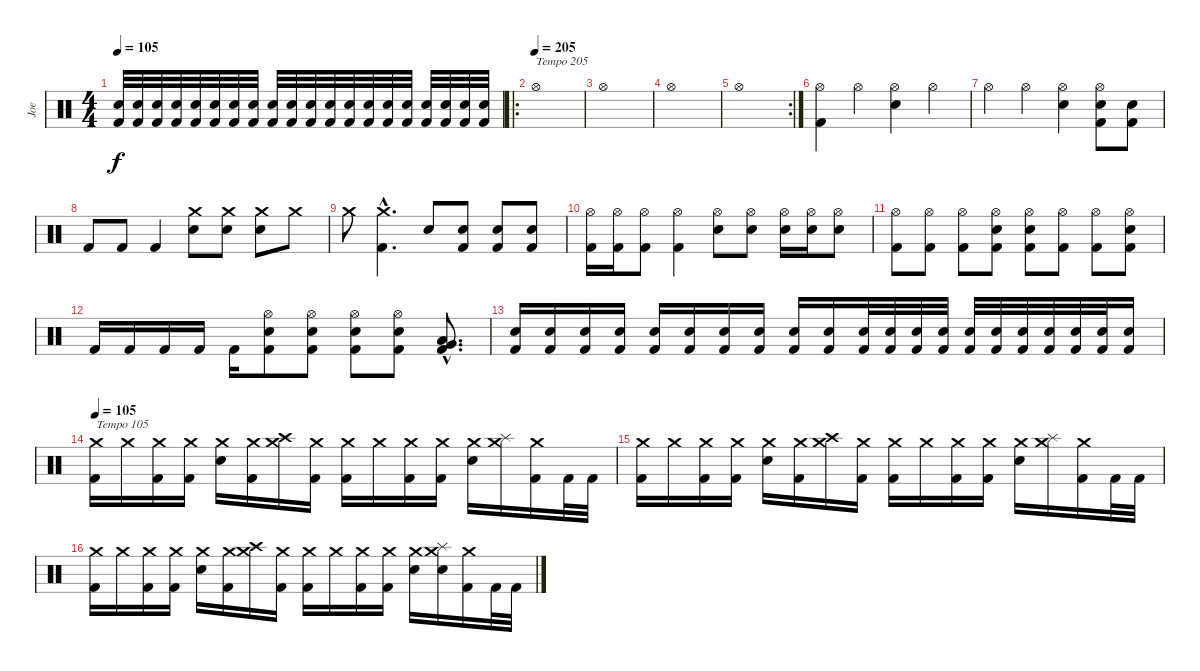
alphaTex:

\track ("Joe" "Joe") {instrument percussion}
\staff {score}
\articulation defaults
\ts (4 4)
\tempo 105
\clef neutral
\ks c
("Kick (hit) 2" "Electric Snare (hit)").32{dy f} ("Kick (hit) 2" "Electric Snare (hit)").32 ("Kick (hit) 2" "Electric Snare (hit)").32 ("Kick (hit) 2" "Electric Snare (hit)").32 ("Kick (hit) 2" "Electric Snare (hit)").32 ("Kick (hit) 2" "Electric Snare (hit)").32 ("Kick (hit) 2" "Electric Snare (hit)").32 ("Kick (hit) 2" "Electric Snare (hit)").32 ("Kick (hit) 2" "Electric Snare (hit)").32 ("Kick (hit) 2" "Electric Snare (hit)").32 ("Kick (hit) 2" "Electric Snare (hit)").32 ("Kick (hit) 2" "Electric Snare (hit)").32 ("Kick (hit) 2" "Electric Snare (hit)").32 ("Kick (hit) 2" "Electric Snare (hit)").32 ("Kick (hit) 2" "Electric Snare (hit)").32 ("Kick (hit) 2" "Electric Snare (hit)").32 ("Kick (hit) 2" "Electric Snare (hit)").32 ("Kick (hit) 2" "Electric Snare (hit)").32 ("Kick (hit) 2" "Electric Snare (hit)").32 ("Kick (hit) 2" "Electric Snare (hit)").32 |
\ro
\tempo (205)
"Hi-Hat (open)".1{txt "Tempo 205"} |
"Hi-Hat (open)".1 |
"Hi-Hat (open)".1 |
\rc 2 "Hi-Hat (open)".1
|
("Kick (hit) 2" "Hi-Hat (open)").4 "Hi-Hat (open)".4 ("Electric Snare (hit)" "Hi-Hat (open)").4 "Hi-Hat (open)".4 |
"Hi-Hat (open)".4 "Hi-Hat (open)".4 ("Electric Snare (hit)" "Hi-Hat (open)").4 ("Kick (hit) 2" "Electric Snare (hit)" "Hi-Hat (open)").8 ("Kick (hit) 2" "Electric Snare (hit)").8 |
"Kick (hit) 2".8 "Kick (hit) 2".8 "Kick (hit) 2".4 ("Electric Snare (hit)" "Crash medium (hit)").8 ("Electric Snare (hit)" "Crash medium (hit)").8 ("Electric Snare (hit)" "Crash medium (hit)").8 "Crash medium (hit)".8 |
"Crash medium (hit)".8 ("Kick (hit) 2"{hac} "Crash medium (hit)"{hac}).4{d} "Electric Snare (hit)".8 ("Kick (hit) 2" "Electric Snare (hit)").8 ("Kick (hit) 2" "Electric Snare (hit)").8 ("Kick (hit) 2" "Electric Snare (hit)").8 |
("Kick (hit) 2" "Hi-Hat (open)").16 ("Kick (hit) 2" "Hi-Hat (open)").16 ("Kick (hit) 2" "Hi-Hat (open)").8 ("Kick (hit) 2" "Hi-Hat (open)").4 ("Electric Snare (hit)" "Hi-Hat (open)").8 ("Electric Snare (hit)" "Hi-Hat (open)").8 ("Electric Snare (hit)" "Hi-Hat (open)").16 ("Electric Snare (hit)" "Hi-Hat (open)").16 ("Electric Snare (hit)" "Hi-Hat (open)").8 |
("Kick (hit) 2" "Hi-Hat (open)").8 ("Kick (hit) 2" "Hi-Hat (open)").8 ("Kick (hit) 2" "Hi-Hat (open)").8 ("Kick (hit) 2" "Electric Snare (hit)" "Hi-Hat (open)").8 ("Kick (hit) 2" "Electric Snare (hit)" "Hi-Hat (open)").8 ("Kick (hit) 2" "Hi-Hat (open)").8 ("Kick (hit) 2" "Hi-Hat (open)").8 ("Kick (hit) 2" "Electric Snare (hit)" "Hi-Hat (open)").8 |
"Kick (hit) 2".16 "Kick (hit) 2".16 "Kick (hit) 2".16 "Kick (hit) 2".16 "Kick (hit) 2".16 ("Kick (hit) 2" "Electric Snare (hit)" "Hi-Hat (open)").8 ("Kick (hit) 2" "Electric Snare (hit)" "Hi-Hat (open)").8 ("Kick (hit) 2" "Electric Snare (hit)" "Hi-Hat (open)").8 ("Kick (hit) 2" "Electric Snare (hit)" "Hi-Hat (open)").8 ("Kick (hit) 2"{hac} "Very Low Tom (hit)"{hac} "Low Tom (hit)"{hac}).8{d} |
("Kick (hit) 2" "Electric Snare (hit)").16 ("Kick (hit) 2" "Electric Snare (hit)").16 ("Kick (hit) 2" "Electric Snare (hit)").16 ("Kick (hit) 2" "Electric Snare (hit)").16 ("Kick (hit) 2" "Electric Snare (hit)").16 ("Kick (hit) 2" "Electric Snare (hit)").16 ("Kick (hit) 2" "Electric Snare (hit)").16 ("Kick (hit) 2" "Electric Snare (hit)").16 ("Kick (hit) 2" "Electric Snare (hit)").16 ("Kick (hit) 2" "Electric Snare (hit)").16 ("Kick (hit) 2" "Electric Snare (hit)").32 ("Kick (hit) 2" "Electric Snare (hit)").32 ("Kick (hit) 2" "Electric Snare (hit)").32 ("Kick (hit) 2" "Electric Snare (hit)").32 ("Kick (hit) 2" "Electric Snare (hit)").32 ("Kick (hit) 2" "Electric Snare (hit)").32 ("Kick (hit) 2" "Electric Snare (hit)").32 ("Kick (hit) 2" "Electric Snare (hit)").32 ("Kick (hit) 2" "Electric Snare (hit)").32 ("Kick (hit) 2" "Electric Snare (hit)").32 ("Kick (hit) 2" "Electric Snare (hit)").16 |
\tempo 105
("Kick (hit) 2" "Crash medium (hit)").16{txt "Tempo 105"} "Crash medium (hit)".16 ("Kick (hit) 2" "Crash medium (hit)").16 ("Kick (hit) 2" "Crash medium (hit)").16 ("Crash medium (hit)" "Electric Snare (hit)").16 ("Kick (hit) 2" "Crash medium (hit)").16 ("Crash high (hit)" "Crash medium (hit)").16 ("Kick (hit) 2" "Crash medium (hit)").16 ("Kick (hit) 2" "Crash medium (hit)").16 "Crash medium (hit)".16 ("Kick (hit) 2" "Crash medium (hit)").16 ("Kick (hit) 2" "Crash medium (hit)").16 ("Crash medium (hit)" "Electric Snare (hit)").16 ("Splash (hit)" "Crash medium (hit)").16 ("Kick (hit) 2" "Crash medium (hit)").16 "Kick (hit) 2".32 "Kick (hit) 2".32 |
("Kick (hit) 2" "Crash medium (hit)").16 "Crash medium (hit)".16 ("Kick (hit) 2" "Crash medium (hit)").16 ("Kick (hit) 2" "Crash medium (hit)").16 ("Crash medium (hit)" "Electric Snare (hit)").16 ("Kick (hit) 2" "Crash medium (hit)").16 ("Crash high (hit)" "Crash medium (hit)").16 ("Kick (hit) 2" "Crash medium (hit)").16 ("Kick (hit) 2" "Crash medium (hit)").16 "Crash medium (hit)".16 ("Kick (hit) 2" "Crash medium (hit)").16 ("Kick (hit) 2" "Crash medium (hit)").16 ("Crash medium (hit)" "Electric Snare (hit)").16 ("Splash (hit)" "Crash medium (hit)").16 ("Kick (hit) 2" "Crash medium (hit)").16 "Kick (hit) 2".32 "Kick (hit) 2".32 |
("Kick (hit) 2" "Crash medium (hit)").16 "Crash medium (hit)".16 ("Kick (hit) 2" "Crash medium (hit)").16 ("Kick (hit) 2" "Crash medium (hit)").16 ("Crash medium (hit)" "Electric Snare (hit)").16 ("Kick (hit) 2" "Crash medium (hit)").16 ("Crash high (hit)" "Crash medium (hit)").16 ("Kick (hit) 2" "Crash medium (hit)").16 ("Kick (hit) 2" "Crash medium (hit)").16 "Crash medium (hit)".16 ("Kick (hit) 2" "Crash medium (hit)").16 ("Kick (hit) 2" "Crash medium (hit)").16 ("Crash medium (hit)" "Electric Snare (hit)").16 ("Splash (hit)" "Crash medium (hit)" "Electric Snare (hit)").16 ("Kick (hit) 2" "Crash medium (hit)").16 "Kick (hit) 2".32 "Kick (hit) 2".32
